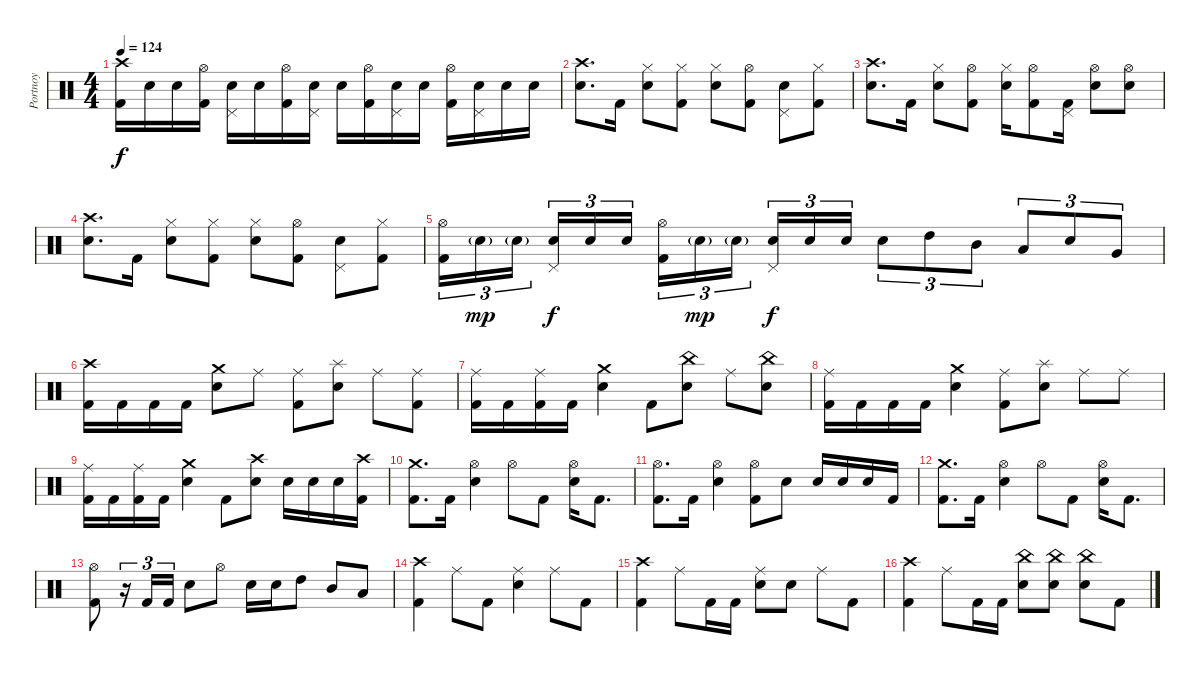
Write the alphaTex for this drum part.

\track ("Portnoy" "Portnoy") {instrument percussion}
\staff {score}
\articulation defaults
\ts (4 4)
\tempo 124
\clef neutral
\ks c
("Crash high (hit)" "Kick (hit) 2").16{dy f} "Electric Snare (hit)".16 "Electric Snare (hit)".16 ("Hi-Hat (open)" "Kick (hit) 2").16 ("Electric Snare (hit)" "Pedal Hi-Hat (hit)").16 "Electric Snare (hit)".16 ("Hi-Hat (open)" "Kick (hit) 2").16 ("Electric Snare (hit)" "Pedal Hi-Hat (hit)").16 "Electric Snare (hit)".16 ("Hi-Hat (open)" "Kick (hit) 2").16 ("Electric Snare (hit)" "Pedal Hi-Hat (hit)").16 "Electric Snare (hit)".16 ("Hi-Hat (open)" "Kick (hit) 2").16 ("Electric Snare (hit)" "Pedal Hi-Hat (hit)").16 "Electric Snare (hit)".16 "Electric Snare (hit)".16 |
("Crash high (hit)" "Electric Snare (hit)").8{d} "Kick (hit) 2".16 ("Hi-Hat (closed)" "Electric Snare (hit)").8 ("Hi-Hat (closed)" "Kick (hit) 2").8 ("Hi-Hat (closed)" "Electric Snare (hit)").8 ("Hi-Hat (open)" "Kick (hit) 2").8 ("Electric Snare (hit)" "Pedal Hi-Hat (hit)").8 ("Hi-Hat (closed)" "Kick (hit) 2").8 |
("Crash high (hit)" "Electric Snare (hit)").8{d} "Kick (hit) 2".16 ("Hi-Hat (closed)" "Electric Snare (hit)").8 ("Hi-Hat (open)" "Kick (hit) 2").8 ("Hi-Hat (closed)" "Electric Snare (hit)").16 ("Hi-Hat (open)" "Kick (hit) 2").8 ("Pedal Hi-Hat (hit)" "Kick (hit) 2").16 ("Hi-Hat (open)" "Electric Snare (hit)").8 ("Hi-Hat (open)" "Electric Snare (hit)").8 |
("Crash high (hit)" "Electric Snare (hit)").8{d} "Kick (hit) 2".16 ("Hi-Hat (closed)" "Electric Snare (hit)").8 ("Hi-Hat (closed)" "Kick (hit) 2").8 ("Hi-Hat (closed)" "Electric Snare (hit)").8 ("Hi-Hat (open)" "Kick (hit) 2").8 ("Electric Snare (hit)" "Pedal Hi-Hat (hit)").8 ("Hi-Hat (closed)" "Kick (hit) 2").8 |
("Hi-Hat (open)" "Kick (hit) 2").16{tu (3 2)} "Electric Snare (hit)"{g}.16{tu (3 2) dy mp} "Electric Snare (hit)"{g}.16{tu (3 2) beam splitsecondary} ("Electric Snare (hit)" "Pedal Hi-Hat (hit)").16{tu (3 2) dy f} "Electric Snare (hit)".16{tu (3 2)} "Electric Snare (hit)".16{tu (3 2)} ("Hi-Hat (open)" "Kick (hit) 2").16{tu (3 2)} "Electric Snare (hit)"{g}.16{tu (3 2) dy mp} "Electric Snare (hit)"{g}.16{tu (3 2) beam splitsecondary} ("Electric Snare (hit)" "Pedal Hi-Hat (hit)").16{tu (3 2) dy f} "Electric Snare (hit)".16{tu (3 2)} "Electric Snare (hit)".16{tu (3 2)} "Electric Snare (hit)".8{tu (3 2)} "High Tom (hit)".8{tu (3 2)} "Mid Tom (hit)".8{tu (3 2)} "Low Tom (hit)".8{tu (3 2)} "Electric Snare (hit)".8{tu (3 2)} "Very Low Tom (hit)".8{tu (3 2)} |
("Crash high (hit)" "Kick (hit) 2").16 "Kick (hit) 2".16 "Kick (hit) 2".16 "Kick (hit) 2".16 ("Crash medium (hit)" "Electric Snare (hit)").8 "Ride (middle)".8 ("Ride (middle)" "Kick (hit) 2").8 ("Splash (hit)" "Electric Snare (hit)").8 "Ride (middle)".8 ("Ride (middle)" "Kick (hit) 2").8 |
("Ride (middle)" "Kick (hit) 2").16 "Kick (hit) 2".16 ("Ride (middle)" "Kick (hit) 2").16 "Kick (hit) 2".16 ("Crash medium (hit)" "Electric Snare (hit)").4 "Kick (hit) 2".8 ("China (hit)" "Electric Snare (hit)").8 "Ride (middle)".8 ("China (hit)" "Electric Snare (hit)").8 |
("Ride (middle)" "Kick (hit) 2").16 "Kick (hit) 2".16 "Kick (hit) 2".16 "Kick (hit) 2".16 ("Crash medium (hit)" "Electric Snare (hit)").4 ("Ride (middle)" "Kick (hit) 2").8 ("Splash (hit)" "Electric Snare (hit)").8 "Ride (middle)".8 "Ride (middle)".8 |
("Ride (middle)" "Kick (hit) 2").16 "Kick (hit) 2".16 ("Ride (middle)" "Kick (hit) 2").16 "Kick (hit) 2".16 ("Crash medium (hit)" "Electric Snare (hit)").4 "Kick (hit) 2".8 ("Crash high (hit)" "Electric Snare (hit)").8 "Electric Snare (hit)".16 "Electric Snare (hit)".16 "Electric Snare (hit)".16 ("Crash high (hit)" "Kick (hit) 2").16 |
("Crash medium (hit)" "Kick (hit) 2").8{d} "Kick (hit) 2".16 ("Hi-Hat (open)" "Electric Snare (hit)").4 "Hi-Hat (open)".8 "Kick (hit) 2".8 ("Hi-Hat (open)" "Electric Snare (hit)").16 "Kick (hit) 2".8{d} |
("Hi-Hat (open)" "Kick (hit) 2").8{d} "Kick (hit) 2".16 ("Hi-Hat (open)" "Electric Snare (hit)").4 ("Hi-Hat (open)" "Kick (hit) 2").8 "Electric Snare (hit)".8 "Electric Snare (hit)".16 "Electric Snare (hit)".16 "Electric Snare (hit)".16 "Kick (hit) 2".16 |
("Crash medium (hit)" "Kick (hit) 2").8{d} "Kick (hit) 2".16 ("Hi-Hat (open)" "Electric Snare (hit)").4 "Hi-Hat (open)".8 "Kick (hit) 2".8 ("Hi-Hat (open)" "Electric Snare (hit)").16 "Kick (hit) 2".8{d} |
("Hi-Hat (open)" "Kick (hit) 2").8 r.16{tu (3 2)} "Kick (hit) 2".16{tu (3 2)} "Kick (hit) 2".16{tu (3 2)} "Electric Snare (hit)".8 "Hi-Hat (open)".8 "Electric Snare (hit)".16 "Electric Snare (hit)".16 "High Tom (hit)".8 "Mid Tom (hit)".8 "Low Tom (hit)".8 |
("Crash high (hit)" "Kick (hit) 2").4 "Ride (middle)".8 "Kick (hit) 2".8 ("Ride (middle)" "Electric Snare (hit)").4 "Ride (middle)".8 "Kick (hit) 2".8 |
("Crash high (hit)" "Kick (hit) 2").4 "Ride (middle)".8 "Kick (hit) 2".16 "Kick (hit) 2".16 ("Ride (middle)" "Electric Snare (hit)").8 "Electric Snare (hit)".8 "Ride (middle)".8 "Kick (hit) 2".8 |
("Crash high (hit)" "Kick (hit) 2").4 "Ride (middle)".8 "Kick (hit) 2".16 "Kick (hit) 2".16 ("China (hit)" "Electric Snare (hit)").8 ("China (hit)" "Electric Snare (hit)").8 ("China (hit)" "Electric Snare (hit)").8 "Kick (hit) 2".8
